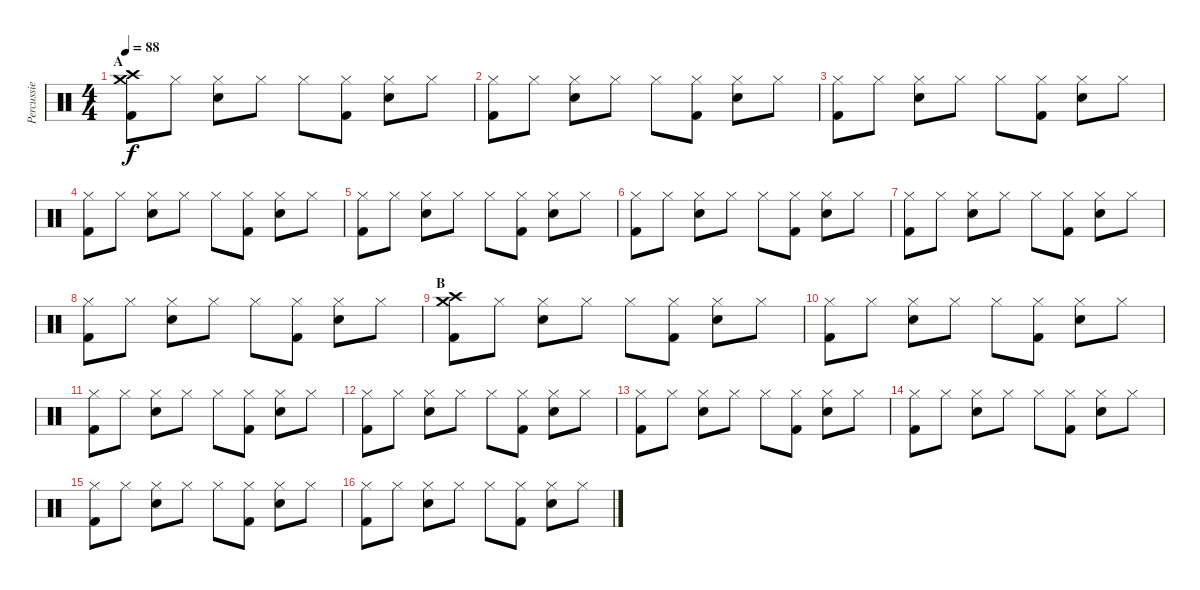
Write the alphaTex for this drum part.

\track ("Percussie" "Percussie") {instrument percussion}
\staff {score}
\articulation defaults
\ts (4 4)
\section ("" "A")
\tempo 88
\clef neutral
\ks c
("Crash medium (hit)" "Crash high (hit)" "Kick (hit) 2").8{dy f} "Hi-Hat (closed)".8 ("Hi-Hat (closed)" "Snare (hit) 2").8 "Hi-Hat (closed)".8 "Hi-Hat (closed)".8 ("Hi-Hat (closed)" "Kick (hit) 2").8 ("Hi-Hat (closed)" "Snare (hit) 2").8 "Hi-Hat (closed)".8 |
("Hi-Hat (closed)" "Kick (hit) 2").8 "Hi-Hat (closed)".8 ("Hi-Hat (closed)" "Snare (hit) 2").8 "Hi-Hat (closed)".8 "Hi-Hat (closed)".8 ("Hi-Hat (closed)" "Kick (hit) 2").8 ("Hi-Hat (closed)" "Snare (hit) 2").8 "Hi-Hat (closed)".8 |
("Hi-Hat (closed)" "Kick (hit) 2").8 "Hi-Hat (closed)".8 ("Hi-Hat (closed)" "Snare (hit) 2").8 "Hi-Hat (closed)".8 "Hi-Hat (closed)".8 ("Hi-Hat (closed)" "Kick (hit) 2").8 ("Hi-Hat (closed)" "Snare (hit) 2").8 "Hi-Hat (closed)".8 |
("Hi-Hat (closed)" "Kick (hit) 2").8 "Hi-Hat (closed)".8 ("Hi-Hat (closed)" "Snare (hit) 2").8 "Hi-Hat (closed)".8 "Hi-Hat (closed)".8 ("Hi-Hat (closed)" "Kick (hit) 2").8 ("Hi-Hat (closed)" "Snare (hit) 2").8 "Hi-Hat (closed)".8 |
("Hi-Hat (closed)" "Kick (hit) 2").8 "Hi-Hat (closed)".8 ("Hi-Hat (closed)" "Snare (hit) 2").8 "Hi-Hat (closed)".8 "Hi-Hat (closed)".8 ("Hi-Hat (closed)" "Kick (hit) 2").8 ("Hi-Hat (closed)" "Snare (hit) 2").8 "Hi-Hat (closed)".8 |
("Hi-Hat (closed)" "Kick (hit) 2").8 "Hi-Hat (closed)".8 ("Hi-Hat (closed)" "Snare (hit) 2").8 "Hi-Hat (closed)".8 "Hi-Hat (closed)".8 ("Hi-Hat (closed)" "Kick (hit) 2").8 ("Hi-Hat (closed)" "Snare (hit) 2").8 "Hi-Hat (closed)".8 |
("Hi-Hat (closed)" "Kick (hit) 2").8 "Hi-Hat (closed)".8 ("Hi-Hat (closed)" "Snare (hit) 2").8 "Hi-Hat (closed)".8 "Hi-Hat (closed)".8 ("Hi-Hat (closed)" "Kick (hit) 2").8 ("Hi-Hat (closed)" "Snare (hit) 2").8 "Hi-Hat (closed)".8 |
("Hi-Hat (closed)" "Kick (hit) 2").8 "Hi-Hat (closed)".8 ("Hi-Hat (closed)" "Snare (hit) 2").8 "Hi-Hat (closed)".8 "Hi-Hat (closed)".8 ("Hi-Hat (closed)" "Kick (hit) 2").8 ("Hi-Hat (closed)" "Snare (hit) 2").8 "Hi-Hat (closed)".8 |
\section ("" "B")
("Crash high (hit)" "Crash medium (hit)" "Kick (hit) 2").8 "Hi-Hat (closed)".8 ("Hi-Hat (closed)" "Snare (hit) 2").8 "Hi-Hat (closed)".8 "Hi-Hat (closed)".8 ("Hi-Hat (closed)" "Kick (hit) 2").8 ("Hi-Hat (closed)" "Snare (hit) 2").8 "Hi-Hat (closed)".8 |
\section ("" "")
("Hi-Hat (closed)" "Kick (hit) 2").8 "Hi-Hat (closed)".8 ("Hi-Hat (closed)" "Snare (hit) 2").8 "Hi-Hat (closed)".8 "Hi-Hat (closed)".8 ("Hi-Hat (closed)" "Kick (hit) 2").8 ("Hi-Hat (closed)" "Snare (hit) 2").8 "Hi-Hat (closed)".8 |
("Hi-Hat (closed)" "Kick (hit) 2").8 "Hi-Hat (closed)".8 ("Hi-Hat (closed)" "Snare (hit) 2").8 "Hi-Hat (closed)".8 "Hi-Hat (closed)".8 ("Hi-Hat (closed)" "Kick (hit) 2").8 ("Hi-Hat (closed)" "Snare (hit) 2").8 "Hi-Hat (closed)".8 |
("Hi-Hat (closed)" "Kick (hit) 2").8 "Hi-Hat (closed)".8 ("Hi-Hat (closed)" "Snare (hit) 2").8 "Hi-Hat (closed)".8 "Hi-Hat (closed)".8 ("Hi-Hat (closed)" "Kick (hit) 2").8 ("Hi-Hat (closed)" "Snare (hit) 2").8 "Hi-Hat (closed)".8 |
("Hi-Hat (closed)" "Kick (hit) 2").8 "Hi-Hat (closed)".8 ("Hi-Hat (closed)" "Snare (hit) 2").8 "Hi-Hat (closed)".8 "Hi-Hat (closed)".8 ("Hi-Hat (closed)" "Kick (hit) 2").8 ("Hi-Hat (closed)" "Snare (hit) 2").8 "Hi-Hat (closed)".8 |
("Hi-Hat (closed)" "Kick (hit) 2").8 "Hi-Hat (closed)".8 ("Hi-Hat (closed)" "Snare (hit) 2").8 "Hi-Hat (closed)".8 "Hi-Hat (closed)".8 ("Hi-Hat (closed)" "Kick (hit) 2").8 ("Hi-Hat (closed)" "Snare (hit) 2").8 "Hi-Hat (closed)".8 |
("Hi-Hat (closed)" "Kick (hit) 2").8 "Hi-Hat (closed)".8 ("Hi-Hat (closed)" "Snare (hit) 2").8 "Hi-Hat (closed)".8 "Hi-Hat (closed)".8 ("Hi-Hat (closed)" "Kick (hit) 2").8 ("Hi-Hat (closed)" "Snare (hit) 2").8 "Hi-Hat (closed)".8 |
("Hi-Hat (closed)" "Kick (hit) 2").8 "Hi-Hat (closed)".8 ("Hi-Hat (closed)" "Snare (hit) 2").8 "Hi-Hat (closed)".8 "Hi-Hat (closed)".8 ("Hi-Hat (closed)" "Kick (hit) 2").8 ("Hi-Hat (closed)" "Snare (hit) 2").8 "Hi-Hat (closed)".8
